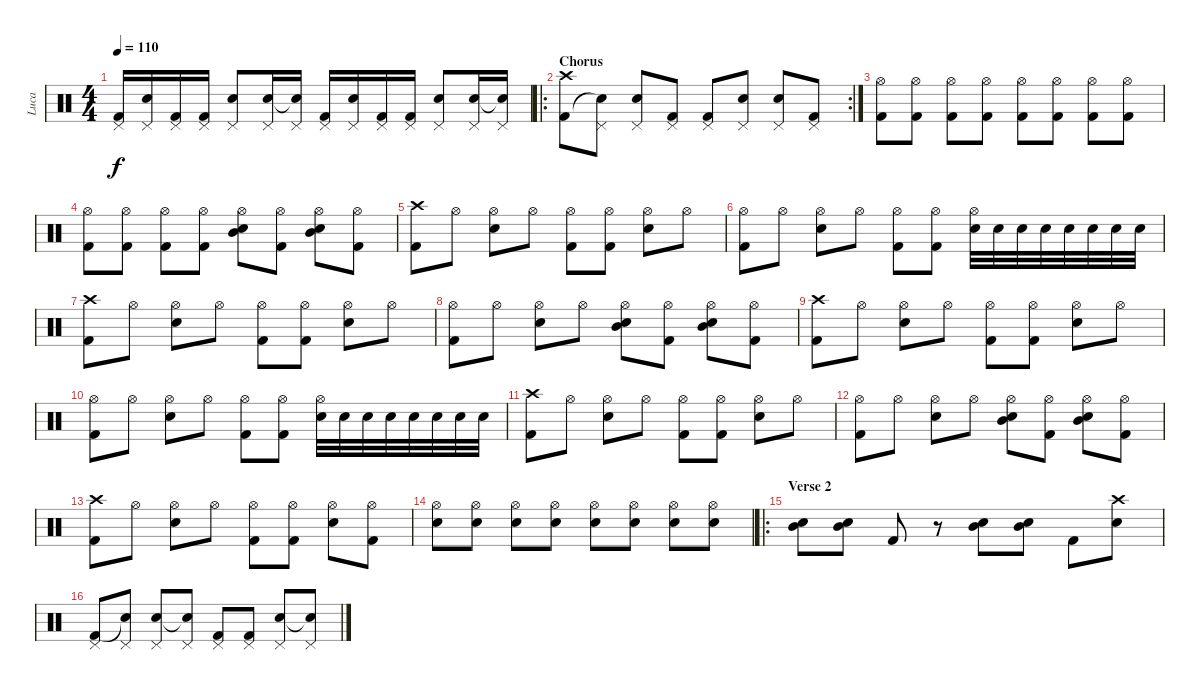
\track ("Luca" "Luca") {instrument percussion}
\staff {score}
\articulation defaults
\ts (4 4)
\tempo 110
\clef neutral
\ks c
("Pedal Hi-Hat (hit)" "Kick (hit) 2").16{dy f} ("Pedal Hi-Hat (hit)" "Snare (hit) 2").16 ("Pedal Hi-Hat (hit)" "Kick (hit) 2").16 ("Pedal Hi-Hat (hit)" "Kick (hit) 2").16 ("Pedal Hi-Hat (hit)" "Snare (hit) 2").8 ("Pedal Hi-Hat (hit)" "Snare (hit) 2").16 ("Pedal Hi-Hat (hit)" "Snare (hit) 2"{t}).16 ("Pedal Hi-Hat (hit)" "Kick (hit) 2").16 ("Pedal Hi-Hat (hit)" "Snare (hit) 2").16 ("Pedal Hi-Hat (hit)" "Kick (hit) 2").16 ("Pedal Hi-Hat (hit)" "Kick (hit) 2").16 ("Pedal Hi-Hat (hit)" "Snare (hit) 2").8 ("Pedal Hi-Hat (hit)" "Snare (hit) 2").16 ("Pedal Hi-Hat (hit)" "Snare (hit) 2"{t}).16 |
\ro
\rc 2
\section ("" "Chorus")
("Crash high (hit)" "Kick (hit) 2").8 ("Pedal Hi-Hat (hit)" "Snare (hit)"{t}).8 ("Pedal Hi-Hat (hit)" "Snare (hit) 2").8 ("Pedal Hi-Hat (hit)" "Kick (hit) 2").8 ("Pedal Hi-Hat (hit)" "Kick (hit) 2").8 ("Pedal Hi-Hat (hit)" "Snare (hit) 2").8 ("Pedal Hi-Hat (hit)" "Snare (hit) 2").8 ("Pedal Hi-Hat (hit)" "Kick (hit) 2").8 |
("Hi-Hat (open)" "Kick (hit) 2").8 ("Hi-Hat (open)" "Kick (hit) 2").8 ("Hi-Hat (open)" "Kick (hit) 2").8 ("Hi-Hat (open)" "Kick (hit) 2").8 ("Hi-Hat (open)" "Kick (hit) 2").8 ("Hi-Hat (open)" "Kick (hit) 2").8 ("Hi-Hat (open)" "Kick (hit) 2").8 ("Hi-Hat (open)" "Kick (hit) 2").8 |
("Hi-Hat (open)" "Kick (hit) 2").8 ("Hi-Hat (open)" "Kick (hit) 2").8 ("Hi-Hat (open)" "Kick (hit) 2").8 ("Hi-Hat (open)" "Kick (hit) 2").8 ("Hi-Hat (open)" "Snare (hit) 2" "Mid Tom (hit)").8 ("Hi-Hat (open)" "Kick (hit) 2").8 ("Hi-Hat (open)" "Snare (hit) 2" "Mid Tom (hit)").8 ("Hi-Hat (open)" "Kick (hit) 2").8 |
("Crash high (hit)" "Kick (hit) 2").8 "Hi-Hat (open)".8 ("Hi-Hat (open)" "Snare (hit) 2").8 "Hi-Hat (open)".8 ("Hi-Hat (open)" "Kick (hit) 2").8 ("Hi-Hat (open)" "Kick (hit) 2").8 ("Hi-Hat (open)" "Snare (hit) 2").8 "Hi-Hat (open)".8 |
("Hi-Hat (open)" "Kick (hit) 2").8 "Hi-Hat (open)".8 ("Hi-Hat (open)" "Snare (hit) 2").8 "Hi-Hat (open)".8 ("Hi-Hat (open)" "Kick (hit) 2").8 ("Hi-Hat (open)" "Kick (hit) 2").8 ("Hi-Hat (open)" "Snare (hit) 2").32 "Snare (hit) 2".32 "Snare (hit) 2".32 "Snare (hit) 2".32 "Snare (hit) 2".32 "Snare (hit) 2".32 "Snare (hit) 2".32 "Snare (hit) 2".32 |
("Crash high (hit)" "Kick (hit) 2").8 "Hi-Hat (open)".8 ("Hi-Hat (open)" "Snare (hit) 2").8 "Hi-Hat (open)".8 ("Hi-Hat (open)" "Kick (hit) 2").8 ("Hi-Hat (open)" "Kick (hit) 2").8 ("Hi-Hat (open)" "Snare (hit) 2").8 "Hi-Hat (open)".8 |
("Hi-Hat (open)" "Kick (hit) 2").8 "Hi-Hat (open)".8 ("Hi-Hat (open)" "Snare (hit) 2").8 "Hi-Hat (open)".8 ("Hi-Hat (open)" "Snare (hit) 2" "Mid Tom (hit)").8 ("Hi-Hat (open)" "Kick (hit) 2").8 ("Hi-Hat (open)" "Snare (hit) 2" "Mid Tom (hit)").8 ("Hi-Hat (open)" "Kick (hit) 2").8 |
("Crash high (hit)" "Kick (hit) 2").8 "Hi-Hat (open)".8 ("Hi-Hat (open)" "Snare (hit) 2").8 "Hi-Hat (open)".8 ("Hi-Hat (open)" "Kick (hit) 2").8 ("Hi-Hat (open)" "Kick (hit) 2").8 ("Hi-Hat (open)" "Snare (hit) 2").8 "Hi-Hat (open)".8 |
("Hi-Hat (open)" "Kick (hit) 2").8 "Hi-Hat (open)".8 ("Hi-Hat (open)" "Snare (hit) 2").8 "Hi-Hat (open)".8 ("Hi-Hat (open)" "Kick (hit) 2").8 ("Hi-Hat (open)" "Kick (hit) 2").8 ("Hi-Hat (open)" "Snare (hit) 2").32 "Snare (hit) 2".32 "Snare (hit) 2".32 "Snare (hit) 2".32 "Snare (hit) 2".32 "Snare (hit) 2".32 "Snare (hit) 2".32 "Snare (hit) 2".32 |
("Crash high (hit)" "Kick (hit) 2").8 "Hi-Hat (open)".8 ("Hi-Hat (open)" "Snare (hit) 2").8 "Hi-Hat (open)".8 ("Hi-Hat (open)" "Kick (hit) 2").8 ("Hi-Hat (open)" "Kick (hit) 2").8 ("Hi-Hat (open)" "Snare (hit) 2").8 "Hi-Hat (open)".8 |
("Hi-Hat (open)" "Kick (hit) 2").8 "Hi-Hat (open)".8 ("Hi-Hat (open)" "Snare (hit) 2").8 "Hi-Hat (open)".8 ("Hi-Hat (open)" "Snare (hit) 2" "Mid Tom (hit)").8 ("Hi-Hat (open)" "Kick (hit) 2").8 ("Hi-Hat (open)" "Snare (hit) 2" "Mid Tom (hit)").8 ("Hi-Hat (open)" "Kick (hit) 2").8 |
("Crash high (hit)" "Kick (hit) 2").8 "Hi-Hat (open)".8 ("Hi-Hat (open)" "Snare (hit) 2").8 "Hi-Hat (open)".8 ("Hi-Hat (open)" "Kick (hit) 2").8 ("Hi-Hat (open)" "Kick (hit) 2").8 ("Hi-Hat (open)" "Snare (hit) 2").8 ("Hi-Hat (open)" "Kick (hit) 2").8 |
("Hi-Hat (open)" "Snare (hit) 2").8 ("Hi-Hat (open)" "Snare (hit) 2").8 ("Hi-Hat (open)" "Snare (hit) 2").8 ("Hi-Hat (open)" "Snare (hit) 2").8 ("Hi-Hat (open)" "Snare (hit) 2").8 ("Hi-Hat (open)" "Snare (hit) 2").8 ("Hi-Hat (open)" "Snare (hit) 2").8 ("Hi-Hat (open)" "Snare (hit) 2").8 |
\ro
\section ("" "Verse 2")
("Snare (hit) 2" "Mid Tom (hit)").8 ("Snare (hit) 2" "Mid Tom (hit)").8 "Kick (hit) 2".8 r.8 ("Snare (hit) 2" "Mid Tom (hit)").8 ("Snare (hit) 2" "Mid Tom (hit)").8 "Kick (hit) 2".8 ("Crash high (hit)" "Snare (hit) 2").8 |
("Pedal Hi-Hat (hit)" "Kick (hit) 2").8 ("Pedal Hi-Hat (hit)" "Snare (hit) 2"{t}).8 ("Pedal Hi-Hat (hit)" "Snare (hit) 2").8 ("Pedal Hi-Hat (hit)" "Snare (hit)"{t}).8 ("Pedal Hi-Hat (hit)" "Kick (hit) 2").8 ("Pedal Hi-Hat (hit)" "Kick (hit) 2").8 ("Pedal Hi-Hat (hit)" "Snare (hit) 2").8 ("Pedal Hi-Hat (hit)" "Snare (hit)"{t}).8
